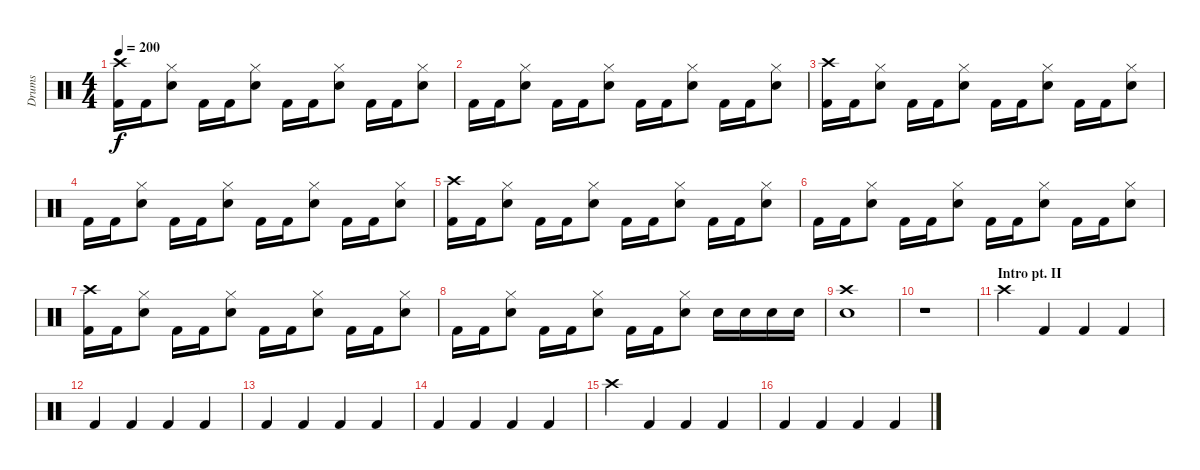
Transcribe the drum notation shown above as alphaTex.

\track ("Drums" "Drums") {instrument percussion}
\staff {score}
\articulation defaults
\ts (4 4)
\tempo 200
\clef neutral
\ks c
("Crash high (hit)" "Kick (hit) 2").16{dy f} "Kick (hit) 2".16 ("Hi-Hat (closed)" "Snare (hit) 2").8 "Kick (hit) 2".16 "Kick (hit) 2".16 ("Hi-Hat (closed)" "Snare (hit) 2").8 "Kick (hit) 2".16 "Kick (hit) 2".16 ("Hi-Hat (closed)" "Snare (hit) 2").8 "Kick (hit) 2".16 "Kick (hit) 2".16 ("Hi-Hat (closed)" "Snare (hit) 2").8 |
"Kick (hit) 2".16 "Kick (hit) 2".16 ("Hi-Hat (closed)" "Snare (hit) 2").8 "Kick (hit) 2".16 "Kick (hit) 2".16 ("Hi-Hat (closed)" "Snare (hit) 2").8 "Kick (hit) 2".16 "Kick (hit) 2".16 ("Hi-Hat (closed)" "Snare (hit) 2").8 "Kick (hit) 2".16 "Kick (hit) 2".16 ("Hi-Hat (closed)" "Snare (hit) 2").8 |
("Crash high (hit)" "Kick (hit) 2").16 "Kick (hit) 2".16 ("Hi-Hat (closed)" "Snare (hit) 2").8 "Kick (hit) 2".16 "Kick (hit) 2".16 ("Hi-Hat (closed)" "Snare (hit) 2").8 "Kick (hit) 2".16 "Kick (hit) 2".16 ("Hi-Hat (closed)" "Snare (hit) 2").8 "Kick (hit) 2".16 "Kick (hit) 2".16 ("Hi-Hat (closed)" "Snare (hit) 2").8 |
"Kick (hit) 2".16 "Kick (hit) 2".16 ("Hi-Hat (closed)" "Snare (hit) 2").8 "Kick (hit) 2".16 "Kick (hit) 2".16 ("Hi-Hat (closed)" "Snare (hit) 2").8 "Kick (hit) 2".16 "Kick (hit) 2".16 ("Hi-Hat (closed)" "Snare (hit) 2").8 "Kick (hit) 2".16 "Kick (hit) 2".16 ("Hi-Hat (closed)" "Snare (hit) 2").8 |
("Crash high (hit)" "Kick (hit) 2").16 "Kick (hit) 2".16 ("Hi-Hat (closed)" "Snare (hit) 2").8 "Kick (hit) 2".16 "Kick (hit) 2".16 ("Hi-Hat (closed)" "Snare (hit) 2").8 "Kick (hit) 2".16 "Kick (hit) 2".16 ("Hi-Hat (closed)" "Snare (hit) 2").8 "Kick (hit) 2".16 "Kick (hit) 2".16 ("Hi-Hat (closed)" "Snare (hit) 2").8 |
"Kick (hit) 2".16 "Kick (hit) 2".16 ("Hi-Hat (closed)" "Snare (hit) 2").8 "Kick (hit) 2".16 "Kick (hit) 2".16 ("Hi-Hat (closed)" "Snare (hit) 2").8 "Kick (hit) 2".16 "Kick (hit) 2".16 ("Hi-Hat (closed)" "Snare (hit) 2").8 "Kick (hit) 2".16 "Kick (hit) 2".16 ("Hi-Hat (closed)" "Snare (hit) 2").8 |
("Crash high (hit)" "Kick (hit) 2").16 "Kick (hit) 2".16 ("Hi-Hat (closed)" "Snare (hit) 2").8 "Kick (hit) 2".16 "Kick (hit) 2".16 ("Hi-Hat (closed)" "Snare (hit) 2").8 "Kick (hit) 2".16 "Kick (hit) 2".16 ("Hi-Hat (closed)" "Snare (hit) 2").8 "Kick (hit) 2".16 "Kick (hit) 2".16 ("Hi-Hat (closed)" "Snare (hit) 2").8 |
"Kick (hit) 2".16 "Kick (hit) 2".16 ("Hi-Hat (closed)" "Snare (hit) 2").8 "Kick (hit) 2".16 "Kick (hit) 2".16 ("Hi-Hat (closed)" "Snare (hit) 2").8 "Kick (hit) 2".16 "Kick (hit) 2".16 ("Hi-Hat (closed)" "Snare (hit) 2").8 "Snare (hit) 2".16 "Snare (hit) 2".16 "Snare (hit) 2".16 "Snare (hit) 2".16 |
("Crash high (hit)" "Snare (hit) 2").1 |
r.1 |
\section ("" "Intro pt. II")
"Crash high (hit)".4 "Kick (hit) 2".4 "Kick (hit) 2".4 "Kick (hit) 2".4 |
"Kick (hit) 2".4 "Kick (hit) 2".4 "Kick (hit) 2".4 "Kick (hit) 2".4 |
"Kick (hit) 2".4 "Kick (hit) 2".4 "Kick (hit) 2".4 "Kick (hit) 2".4 |
"Kick (hit) 2".4 "Kick (hit) 2".4 "Kick (hit) 2".4 "Kick (hit) 2".4 |
"Crash high (hit)".4 "Kick (hit) 2".4 "Kick (hit) 2".4 "Kick (hit) 2".4 |
"Kick (hit) 2".4 "Kick (hit) 2".4 "Kick (hit) 2".4 "Kick (hit) 2".4
